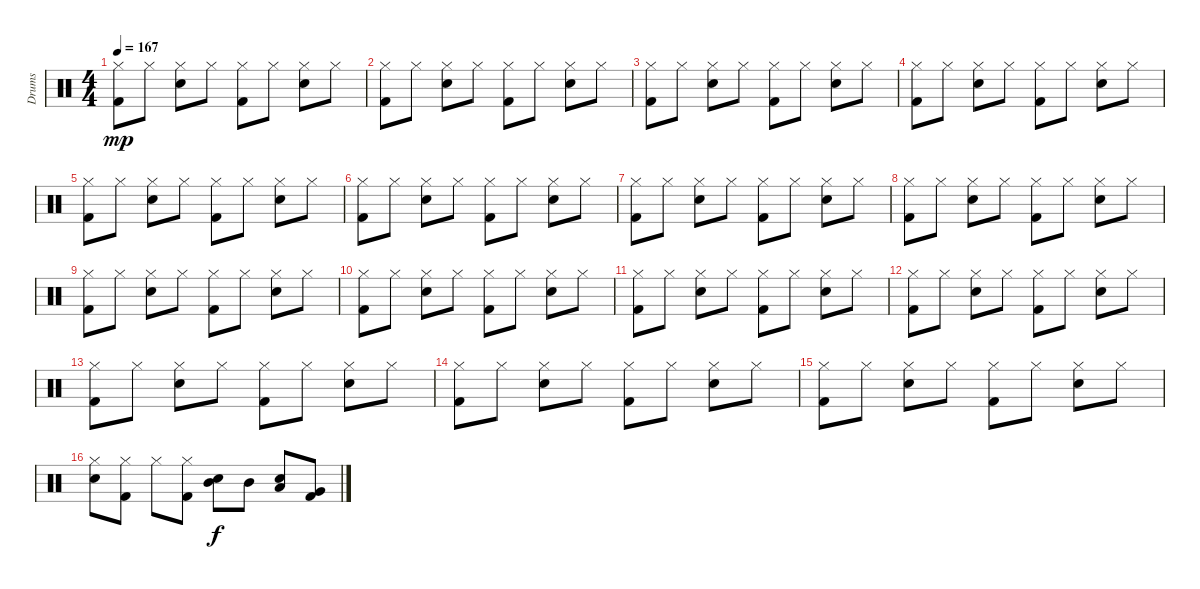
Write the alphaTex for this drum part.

\track ("Drums" "Drums") {instrument percussion}
\staff {score}
\articulation defaults
\ts (4 4)
\tempo 167
\clef neutral
\ks c
("Hi-Hat (closed)" "Kick (hit) 2").8{dy mp} "Hi-Hat (closed)".8 ("Hi-Hat (closed)" "Snare (hit) 2").8 "Hi-Hat (closed)".8 ("Hi-Hat (closed)" "Kick (hit) 2").8 "Hi-Hat (closed)".8 ("Hi-Hat (closed)" "Snare (hit) 2").8 "Hi-Hat (closed)".8 |
("Hi-Hat (closed)" "Kick (hit) 2").8 "Hi-Hat (closed)".8 ("Hi-Hat (closed)" "Snare (hit) 2").8 "Hi-Hat (closed)".8 ("Hi-Hat (closed)" "Kick (hit) 2").8 "Hi-Hat (closed)".8 ("Hi-Hat (closed)" "Snare (hit) 2").8 "Hi-Hat (closed)".8 |
("Hi-Hat (closed)" "Kick (hit) 2").8 "Hi-Hat (closed)".8 ("Hi-Hat (closed)" "Snare (hit) 2").8 "Hi-Hat (closed)".8 ("Hi-Hat (closed)" "Kick (hit) 2").8 "Hi-Hat (closed)".8 ("Hi-Hat (closed)" "Snare (hit) 2").8 "Hi-Hat (closed)".8 |
("Hi-Hat (closed)" "Kick (hit) 2").8 "Hi-Hat (closed)".8 ("Hi-Hat (closed)" "Snare (hit) 2").8 "Hi-Hat (closed)".8 ("Hi-Hat (closed)" "Kick (hit) 2").8 "Hi-Hat (closed)".8 ("Hi-Hat (closed)" "Snare (hit) 2").8 "Hi-Hat (closed)".8 |
("Hi-Hat (closed)" "Kick (hit) 2").8 "Hi-Hat (closed)".8 ("Hi-Hat (closed)" "Snare (hit) 2").8 "Hi-Hat (closed)".8 ("Hi-Hat (closed)" "Kick (hit) 2").8 "Hi-Hat (closed)".8 ("Hi-Hat (closed)" "Snare (hit) 2").8 "Hi-Hat (closed)".8 |
("Hi-Hat (closed)" "Kick (hit) 2").8 "Hi-Hat (closed)".8 ("Hi-Hat (closed)" "Snare (hit) 2").8 "Hi-Hat (closed)".8 ("Hi-Hat (closed)" "Kick (hit) 2").8 "Hi-Hat (closed)".8 ("Hi-Hat (closed)" "Snare (hit) 2").8 "Hi-Hat (closed)".8 |
("Hi-Hat (closed)" "Kick (hit) 2").8 "Hi-Hat (closed)".8 ("Hi-Hat (closed)" "Snare (hit) 2").8 "Hi-Hat (closed)".8 ("Hi-Hat (closed)" "Kick (hit) 2").8 "Hi-Hat (closed)".8 ("Hi-Hat (closed)" "Snare (hit) 2").8 "Hi-Hat (closed)".8 |
("Hi-Hat (closed)" "Kick (hit) 2").8 "Hi-Hat (closed)".8 ("Hi-Hat (closed)" "Snare (hit) 2").8 "Hi-Hat (closed)".8 ("Hi-Hat (closed)" "Kick (hit) 2").8 "Hi-Hat (closed)".8 ("Hi-Hat (closed)" "Snare (hit) 2").8 "Hi-Hat (closed)".8 |
("Hi-Hat (closed)" "Kick (hit) 2").8 "Hi-Hat (closed)".8 ("Hi-Hat (closed)" "Snare (hit) 2").8 "Hi-Hat (closed)".8 ("Hi-Hat (closed)" "Kick (hit) 2").8 "Hi-Hat (closed)".8 ("Hi-Hat (closed)" "Snare (hit) 2").8 "Hi-Hat (closed)".8 |
("Hi-Hat (closed)" "Kick (hit) 2").8 "Hi-Hat (closed)".8 ("Hi-Hat (closed)" "Snare (hit) 2").8 "Hi-Hat (closed)".8 ("Hi-Hat (closed)" "Kick (hit) 2").8 "Hi-Hat (closed)".8 ("Hi-Hat (closed)" "Snare (hit) 2").8 "Hi-Hat (closed)".8 |
("Hi-Hat (closed)" "Kick (hit) 2").8 "Hi-Hat (closed)".8 ("Hi-Hat (closed)" "Snare (hit) 2").8 "Hi-Hat (closed)".8 ("Hi-Hat (closed)" "Kick (hit) 2").8 "Hi-Hat (closed)".8 ("Hi-Hat (closed)" "Snare (hit) 2").8 "Hi-Hat (closed)".8 |
("Hi-Hat (closed)" "Kick (hit) 2").8 "Hi-Hat (closed)".8 ("Hi-Hat (closed)" "Snare (hit) 2").8 "Hi-Hat (closed)".8 ("Hi-Hat (closed)" "Kick (hit) 2").8 "Hi-Hat (closed)".8 ("Hi-Hat (closed)" "Snare (hit) 2").8 "Hi-Hat (closed)".8 |
("Hi-Hat (closed)" "Kick (hit) 2").8 "Hi-Hat (closed)".8 ("Hi-Hat (closed)" "Snare (hit) 2").8 "Hi-Hat (closed)".8 ("Hi-Hat (closed)" "Kick (hit) 2").8 "Hi-Hat (closed)".8 ("Hi-Hat (closed)" "Snare (hit) 2").8 "Hi-Hat (closed)".8 |
("Hi-Hat (closed)" "Kick (hit) 2").8 "Hi-Hat (closed)".8 ("Hi-Hat (closed)" "Snare (hit) 2").8 "Hi-Hat (closed)".8 ("Hi-Hat (closed)" "Kick (hit) 2").8 "Hi-Hat (closed)".8 ("Hi-Hat (closed)" "Snare (hit) 2").8 "Hi-Hat (closed)".8 |
("Hi-Hat (closed)" "Kick (hit) 2").8 "Hi-Hat (closed)".8 ("Hi-Hat (closed)" "Snare (hit) 2").8 "Hi-Hat (closed)".8 ("Hi-Hat (closed)" "Kick (hit) 2").8 "Hi-Hat (closed)".8 ("Hi-Hat (closed)" "Snare (hit) 2").8 "Hi-Hat (closed)".8 |
("Hi-Hat (closed)" "Snare (hit) 2").8 ("Hi-Hat (closed)" "Kick (hit) 2").8 "Hi-Hat (closed)".8 ("Hi-Hat (closed)" "Kick (hit) 2").8 ("Mid Tom (hit)" "Snare (hit) 2").8{dy f} "Mid Tom (hit)".8 ("Low Tom (hit)" "Snare (hit) 2").8 ("Very Low Tom (hit)" "Kick (hit) 2").8
